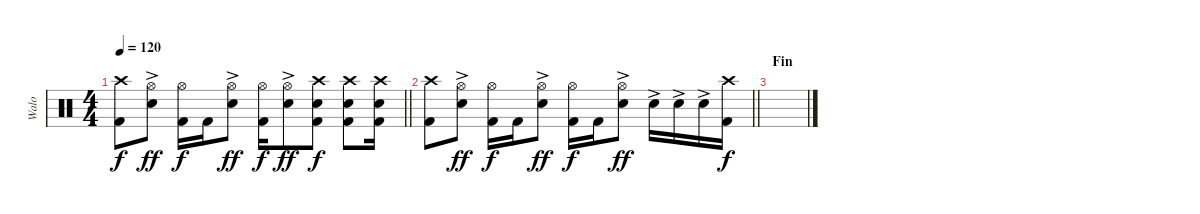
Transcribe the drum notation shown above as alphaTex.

\track ("Walo" "Walo") {instrument percussion}
\staff {score}
\articulation defaults
\ts (4 4)
\tempo 120
\clef neutral
\barLineRight lightlight
\ks c
("Crash high (hit)" "Kick (hit) 2").8{dy f} ("Hi-Hat (open)" "Electric Snare (hit)"{ac}).8{dy ff} ("Hi-Hat (open)" "Kick (hit) 2").16{dy f} "Kick (hit) 2".16 ("Hi-Hat (open)" "Electric Snare (hit)"{ac}).8{dy ff} ("Kick (hit) 2" "Hi-Hat (open)").16{dy f} ("Hi-Hat (open)" "Electric Snare (hit)"{ac}).8{dy ff} ("Kick (hit) 2" "Crash high (hit)" "Electric Snare (hit)").8{dy f} ("Kick (hit) 2" "Crash high (hit)" "Electric Snare (hit)").8 ("Electric Snare (hit)" "Kick (hit) 2" "Crash high (hit)").16 |
\section ("" "")
\barLineRight lightlight
("Kick (hit) 2" "Crash high (hit)").8 ("Hi-Hat (open)" "Electric Snare (hit)"{ac}).8{dy ff} ("Hi-Hat (open)" "Kick (hit) 2").16{dy f} "Kick (hit) 2".16 ("Hi-Hat (open)" "Electric Snare (hit)"{ac}).8{dy ff} ("Hi-Hat (open)" "Kick (hit) 2").16{dy f} "Kick (hit) 2".16 ("Hi-Hat (open)" "Electric Snare (hit)"{ac}).8{dy ff} "Electric Snare (hit)"{ac}.16 "Electric Snare (hit)"{ac}.16 "Electric Snare (hit)"{ac}.16 ("Kick (hit) 2" "Crash high (hit)").16{dy f} |
\section ("" "Fin")
